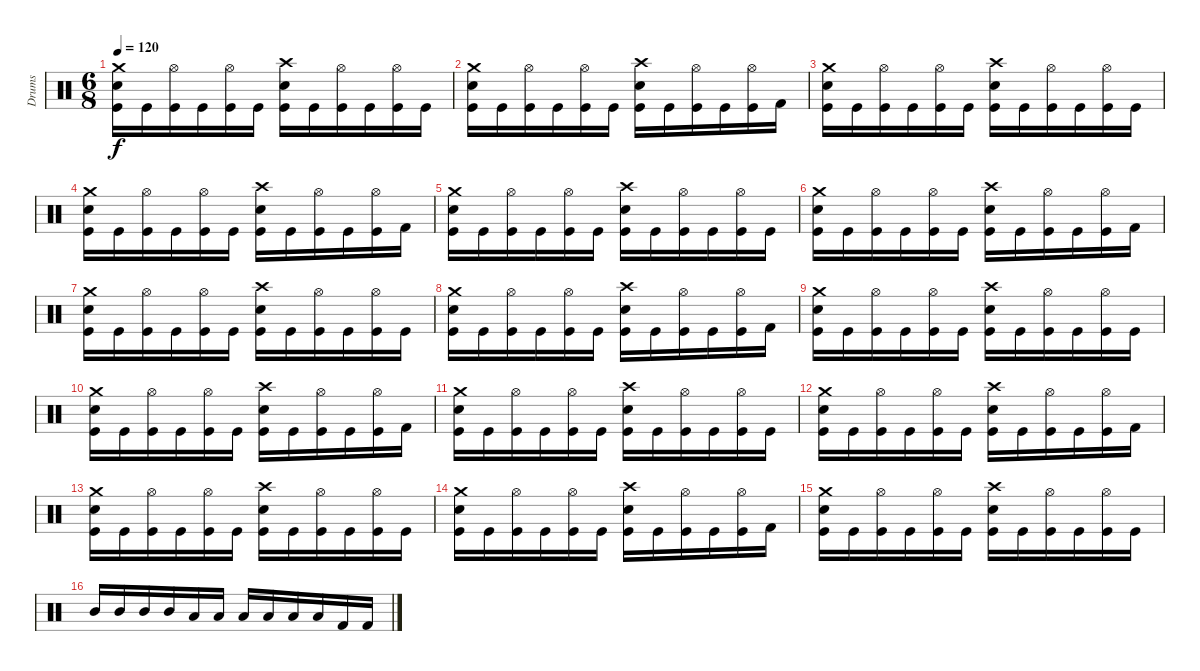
\track ("Drums" "Drums") {instrument percussion}
\staff {score}
\articulation defaults
\ts (6 8)
\tempo 120
\clef neutral
\ks c
("Crash medium (hit)" "Electric Snare (hit)" "Kick (hit)").16{dy f beam merge} "Kick (hit)".16 ("Hi-Hat (open)" "Kick (hit)").16 "Kick (hit)".16 ("Hi-Hat (open)" "Kick (hit)").16 "Kick (hit)".16 ("Crash high (hit)" "Electric Snare (hit)" "Kick (hit)").16{beam merge} "Kick (hit)".16 ("Hi-Hat (open)" "Kick (hit)").16 "Kick (hit)".16 ("Hi-Hat (open)" "Kick (hit)").16 "Kick (hit)".16 |
("Crash medium (hit)" "Electric Snare (hit)" "Kick (hit)").16 "Kick (hit)".16 ("Hi-Hat (open)" "Kick (hit)").16 "Kick (hit)".16 ("Hi-Hat (open)" "Kick (hit)").16 "Kick (hit)".16 ("Crash high (hit)" "Electric Snare (hit)" "Kick (hit)").16{beam merge} "Kick (hit)".16{beam merge} ("Hi-Hat (open)" "Kick (hit)").16{beam merge} "Kick (hit)".16 ("Hi-Hat (open)" "Kick (hit)").16 "Kick (hit) 2".16 |
("Crash medium (hit)" "Electric Snare (hit)" "Kick (hit)").16{beam merge} "Kick (hit)".16 ("Hi-Hat (open)" "Kick (hit)").16 "Kick (hit)".16 ("Hi-Hat (open)" "Kick (hit)").16 "Kick (hit)".16 ("Crash high (hit)" "Electric Snare (hit)" "Kick (hit)").16{beam merge} "Kick (hit)".16 ("Hi-Hat (open)" "Kick (hit)").16 "Kick (hit)".16 ("Hi-Hat (open)" "Kick (hit)").16 "Kick (hit)".16 |
("Crash medium (hit)" "Electric Snare (hit)" "Kick (hit)").16 "Kick (hit)".16 ("Hi-Hat (open)" "Kick (hit)").16 "Kick (hit)".16 ("Hi-Hat (open)" "Kick (hit)").16 "Kick (hit)".16 ("Crash high (hit)" "Electric Snare (hit)" "Kick (hit)").16{beam merge} "Kick (hit)".16{beam merge} ("Hi-Hat (open)" "Kick (hit)").16{beam merge} "Kick (hit)".16 ("Hi-Hat (open)" "Kick (hit)").16 "Kick (hit) 2".16 |
("Crash medium (hit)" "Electric Snare (hit)" "Kick (hit)").16{beam merge} "Kick (hit)".16 ("Hi-Hat (open)" "Kick (hit)").16 "Kick (hit)".16 ("Hi-Hat (open)" "Kick (hit)").16 "Kick (hit)".16 ("Crash high (hit)" "Electric Snare (hit)" "Kick (hit)").16{beam merge} "Kick (hit)".16 ("Hi-Hat (open)" "Kick (hit)").16 "Kick (hit)".16 ("Hi-Hat (open)" "Kick (hit)").16 "Kick (hit)".16 |
("Crash medium (hit)" "Electric Snare (hit)" "Kick (hit)").16 "Kick (hit)".16 ("Hi-Hat (open)" "Kick (hit)").16 "Kick (hit)".16 ("Hi-Hat (open)" "Kick (hit)").16 "Kick (hit)".16 ("Crash high (hit)" "Electric Snare (hit)" "Kick (hit)").16{beam merge} "Kick (hit)".16{beam merge} ("Hi-Hat (open)" "Kick (hit)").16{beam merge} "Kick (hit)".16 ("Hi-Hat (open)" "Kick (hit)").16 "Kick (hit) 2".16 |
("Crash medium (hit)" "Electric Snare (hit)" "Kick (hit)").16{beam merge} "Kick (hit)".16 ("Hi-Hat (open)" "Kick (hit)").16 "Kick (hit)".16 ("Hi-Hat (open)" "Kick (hit)").16 "Kick (hit)".16 ("Crash high (hit)" "Electric Snare (hit)" "Kick (hit)").16{beam merge} "Kick (hit)".16 ("Hi-Hat (open)" "Kick (hit)").16 "Kick (hit)".16 ("Hi-Hat (open)" "Kick (hit)").16 "Kick (hit)".16 |
("Crash medium (hit)" "Electric Snare (hit)" "Kick (hit)").16 "Kick (hit)".16 ("Hi-Hat (open)" "Kick (hit)").16 "Kick (hit)".16 ("Hi-Hat (open)" "Kick (hit)").16 "Kick (hit)".16 ("Crash high (hit)" "Electric Snare (hit)" "Kick (hit)").16{beam merge} "Kick (hit)".16{beam merge} ("Hi-Hat (open)" "Kick (hit)").16{beam merge} "Kick (hit)".16 ("Hi-Hat (open)" "Kick (hit)").16 "Kick (hit) 2".16 |
("Crash medium (hit)" "Electric Snare (hit)" "Kick (hit)").16{beam merge} "Kick (hit)".16 ("Hi-Hat (open)" "Kick (hit)").16 "Kick (hit)".16 ("Hi-Hat (open)" "Kick (hit)").16 "Kick (hit)".16 ("Crash high (hit)" "Electric Snare (hit)" "Kick (hit)").16{beam merge} "Kick (hit)".16 ("Hi-Hat (open)" "Kick (hit)").16 "Kick (hit)".16 ("Hi-Hat (open)" "Kick (hit)").16 "Kick (hit)".16 |
("Crash medium (hit)" "Electric Snare (hit)" "Kick (hit)").16 "Kick (hit)".16 ("Hi-Hat (open)" "Kick (hit)").16 "Kick (hit)".16 ("Hi-Hat (open)" "Kick (hit)").16 "Kick (hit)".16 ("Crash high (hit)" "Electric Snare (hit)" "Kick (hit)").16{beam merge} "Kick (hit)".16{beam merge} ("Hi-Hat (open)" "Kick (hit)").16{beam merge} "Kick (hit)".16 ("Hi-Hat (open)" "Kick (hit)").16 "Kick (hit) 2".16 |
("Crash medium (hit)" "Electric Snare (hit)" "Kick (hit)").16{beam merge} "Kick (hit)".16 ("Hi-Hat (open)" "Kick (hit)").16 "Kick (hit)".16 ("Hi-Hat (open)" "Kick (hit)").16 "Kick (hit)".16 ("Crash high (hit)" "Electric Snare (hit)" "Kick (hit)").16{beam merge} "Kick (hit)".16 ("Hi-Hat (open)" "Kick (hit)").16 "Kick (hit)".16 ("Hi-Hat (open)" "Kick (hit)").16 "Kick (hit)".16 |
("Crash medium (hit)" "Electric Snare (hit)" "Kick (hit)").16 "Kick (hit)".16 ("Hi-Hat (open)" "Kick (hit)").16 "Kick (hit)".16 ("Hi-Hat (open)" "Kick (hit)").16 "Kick (hit)".16 ("Crash high (hit)" "Electric Snare (hit)" "Kick (hit)").16{beam merge} "Kick (hit)".16{beam merge} ("Hi-Hat (open)" "Kick (hit)").16{beam merge} "Kick (hit)".16 ("Hi-Hat (open)" "Kick (hit)").16 "Kick (hit) 2".16 |
("Crash medium (hit)" "Electric Snare (hit)" "Kick (hit)").16{beam merge} "Kick (hit)".16 ("Hi-Hat (open)" "Kick (hit)").16 "Kick (hit)".16 ("Hi-Hat (open)" "Kick (hit)").16 "Kick (hit)".16 ("Crash high (hit)" "Electric Snare (hit)" "Kick (hit)").16{beam merge} "Kick (hit)".16 ("Hi-Hat (open)" "Kick (hit)").16 "Kick (hit)".16 ("Hi-Hat (open)" "Kick (hit)").16 "Kick (hit)".16 |
("Crash medium (hit)" "Electric Snare (hit)" "Kick (hit)").16 "Kick (hit)".16 ("Hi-Hat (open)" "Kick (hit)").16 "Kick (hit)".16 ("Hi-Hat (open)" "Kick (hit)").16 "Kick (hit)".16 ("Crash high (hit)" "Electric Snare (hit)" "Kick (hit)").16{beam merge} "Kick (hit)".16{beam merge} ("Hi-Hat (open)" "Kick (hit)").16{beam merge} "Kick (hit)".16 ("Hi-Hat (open)" "Kick (hit)").16 "Kick (hit) 2".16 |
("Crash medium (hit)" "Electric Snare (hit)" "Kick (hit)").16{beam merge} "Kick (hit)".16 ("Hi-Hat (open)" "Kick (hit)").16 "Kick (hit)".16 ("Hi-Hat (open)" "Kick (hit)").16 "Kick (hit)".16 ("Crash high (hit)" "Electric Snare (hit)" "Kick (hit)").16{beam merge} "Kick (hit)".16 ("Hi-Hat (open)" "Kick (hit)").16 "Kick (hit)".16 ("Hi-Hat (open)" "Kick (hit)").16 "Kick (hit)".16 |
"Mid Tom (hit)".16 "Mid Tom (hit)".16 "Mid Tom (hit)".16 "Mid Tom (hit)".16 "Low Tom (hit)".16 "Low Tom (hit)".16 "Low Tom (hit)".16 "Low Floor Tom (hit)".16 "Low Floor Tom (hit)".16 "Low Floor Tom (hit)".16 "Kick (hit) 2".16 "Kick (hit) 2".16
